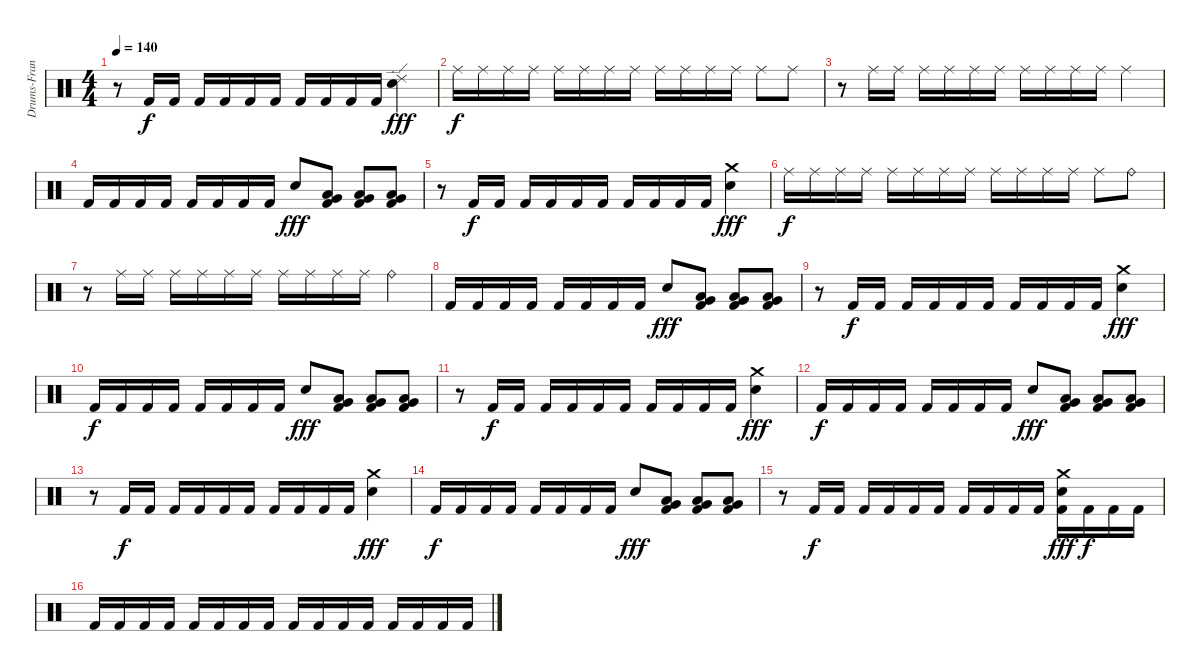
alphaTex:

\track ("Drums-Francis Mark" "Drums-Fran") {instrument percussion}
\staff {score}
\articulation defaults
\ts (4 4)
\tempo 140
\clef neutral
\ks c
r.8{dy fff} "Kick (hit) 2".16{dy f} "Kick (hit) 2".16 "Kick (hit) 2".16 "Kick (hit) 2".16 "Kick (hit) 2".16 "Kick (hit) 2".16 "Kick (hit) 2".16 "Kick (hit) 2".16 "Kick (hit) 2".16 "Kick (hit) 2".16 ("Ride (edge) 2" "Electric Snare (hit)").4{dy fff} |
"Ride (middle)".16{dy f} "Ride (middle)".16 "Ride (middle)".16 "Ride (middle)".16 "Ride (middle)".16 "Ride (middle)".16 "Ride (middle)".16 "Ride (middle)".16 "Ride (middle)".16 "Ride (middle)".16 "Ride (middle)".16 "Ride (middle)".16 "Ride (middle)".8 "Ride (middle)".8 |
r.8 "Ride (middle)".16 "Ride (middle)".16 "Ride (middle)".16 "Ride (middle)".16 "Ride (middle)".16 "Ride (middle)".16 "Ride (middle)".16 "Ride (middle)".16 "Ride (middle)".16 "Ride (middle)".16 "Ride (middle)".4 |
"Kick (hit) 2".16 "Kick (hit) 2".16 "Kick (hit) 2".16 "Kick (hit) 2".16 "Kick (hit) 2".16 "Kick (hit) 2".16 "Kick (hit) 2".16 "Kick (hit) 2".16 "Electric Snare (hit)".8{dy fff} ("Very Low Tom (hit)" "Low Tom (hit)" "Kick (hit) 2").8 ("Very Low Tom (hit)" "Low Tom (hit)" "Kick (hit) 2").8 ("Very Low Tom (hit)" "Low Tom (hit)" "Kick (hit) 2").8 |
r.8 "Kick (hit) 2".16{dy f} "Kick (hit) 2".16 "Kick (hit) 2".16 "Kick (hit) 2".16 "Kick (hit) 2".16 "Kick (hit) 2".16 "Kick (hit) 2".16 "Kick (hit) 2".16 "Kick (hit) 2".16 "Kick (hit) 2".16 ("Crash medium (hit)" "Electric Snare (hit)").4{dy fff} |
"Ride (middle)".16{dy f} "Ride (middle)".16 "Ride (middle)".16 "Ride (middle)".16 "Ride (middle)".16 "Ride (middle)".16 "Ride (middle)".16 "Ride (middle)".16 "Ride (middle)".16 "Ride (middle)".16 "Ride (middle)".16 "Ride (middle)".16 "Ride (middle)".8 "Ride (bell)".8 |
r.8 "Ride (middle)".16 "Ride (middle)".16 "Ride (middle)".16 "Ride (middle)".16 "Ride (middle)".16 "Ride (middle)".16 "Ride (middle)".16 "Ride (middle)".16 "Ride (middle)".16 "Ride (middle)".16 "Ride (bell)".4 |
"Kick (hit) 2".16 "Kick (hit) 2".16 "Kick (hit) 2".16 "Kick (hit) 2".16 "Kick (hit) 2".16 "Kick (hit) 2".16 "Kick (hit) 2".16 "Kick (hit) 2".16 "Electric Snare (hit)".8{dy fff} ("Very Low Tom (hit)" "Low Tom (hit)" "Kick (hit) 2").8 ("Very Low Tom (hit)" "Low Tom (hit)" "Kick (hit) 2").8 ("Very Low Tom (hit)" "Low Tom (hit)" "Kick (hit) 2").8 |
r.8 "Kick (hit) 2".16{dy f} "Kick (hit) 2".16 "Kick (hit) 2".16 "Kick (hit) 2".16 "Kick (hit) 2".16 "Kick (hit) 2".16 "Kick (hit) 2".16 "Kick (hit) 2".16 "Kick (hit) 2".16 "Kick (hit) 2".16 ("Crash medium (hit)" "Electric Snare (hit)").4{dy fff} |
"Kick (hit) 2".16{dy f} "Kick (hit) 2".16 "Kick (hit) 2".16 "Kick (hit) 2".16 "Kick (hit) 2".16 "Kick (hit) 2".16 "Kick (hit) 2".16 "Kick (hit) 2".16 "Electric Snare (hit)".8{dy fff} ("Very Low Tom (hit)" "Low Tom (hit)" "Kick (hit) 2").8 ("Very Low Tom (hit)" "Low Tom (hit)" "Kick (hit) 2").8 ("Very Low Tom (hit)" "Low Tom (hit)" "Kick (hit) 2").8 |
r.8 "Kick (hit) 2".16{dy f} "Kick (hit) 2".16 "Kick (hit) 2".16 "Kick (hit) 2".16 "Kick (hit) 2".16 "Kick (hit) 2".16 "Kick (hit) 2".16 "Kick (hit) 2".16 "Kick (hit) 2".16 "Kick (hit) 2".16 ("Crash medium (hit)" "Electric Snare (hit)").4{dy fff} |
"Kick (hit) 2".16{dy f} "Kick (hit) 2".16 "Kick (hit) 2".16 "Kick (hit) 2".16 "Kick (hit) 2".16 "Kick (hit) 2".16 "Kick (hit) 2".16 "Kick (hit) 2".16 "Electric Snare (hit)".8{dy fff} ("Very Low Tom (hit)" "Low Tom (hit)" "Kick (hit) 2").8 ("Very Low Tom (hit)" "Low Tom (hit)" "Kick (hit) 2").8 ("Very Low Tom (hit)" "Low Tom (hit)" "Kick (hit) 2").8 |
r.8 "Kick (hit) 2".16{dy f} "Kick (hit) 2".16 "Kick (hit) 2".16 "Kick (hit) 2".16 "Kick (hit) 2".16 "Kick (hit) 2".16 "Kick (hit) 2".16 "Kick (hit) 2".16 "Kick (hit) 2".16 "Kick (hit) 2".16 ("Crash medium (hit)" "Electric Snare (hit)").4{dy fff} |
"Kick (hit) 2".16{dy f} "Kick (hit) 2".16 "Kick (hit) 2".16 "Kick (hit) 2".16 "Kick (hit) 2".16 "Kick (hit) 2".16 "Kick (hit) 2".16 "Kick (hit) 2".16 "Electric Snare (hit)".8{dy fff} ("Very Low Tom (hit)" "Low Tom (hit)" "Kick (hit) 2").8 ("Very Low Tom (hit)" "Low Tom (hit)" "Kick (hit) 2").8 ("Very Low Tom (hit)" "Low Tom (hit)" "Kick (hit) 2").8 |
r.8 "Kick (hit) 2".16{dy f} "Kick (hit) 2".16 "Kick (hit) 2".16 "Kick (hit) 2".16 "Kick (hit) 2".16 "Kick (hit) 2".16 "Kick (hit) 2".16 "Kick (hit) 2".16 "Kick (hit) 2".16 "Kick (hit) 2".16 ("Crash medium (hit)" "Electric Snare (hit)" "Kick (hit) 2").16{dy fff} "Kick (hit) 2".16{dy f} "Kick (hit) 2".16 "Kick (hit) 2".16 |
"Kick (hit) 2".16 "Kick (hit) 2".16 "Kick (hit) 2".16 "Kick (hit) 2".16 "Kick (hit) 2".16 "Kick (hit) 2".16 "Kick (hit) 2".16 "Kick (hit) 2".16 "Kick (hit) 2".16 "Kick (hit) 2".16 "Kick (hit) 2".16 "Kick (hit) 2".16 "Kick (hit) 2".16 "Kick (hit) 2".16 "Kick (hit) 2".16 "Kick (hit) 2".16
